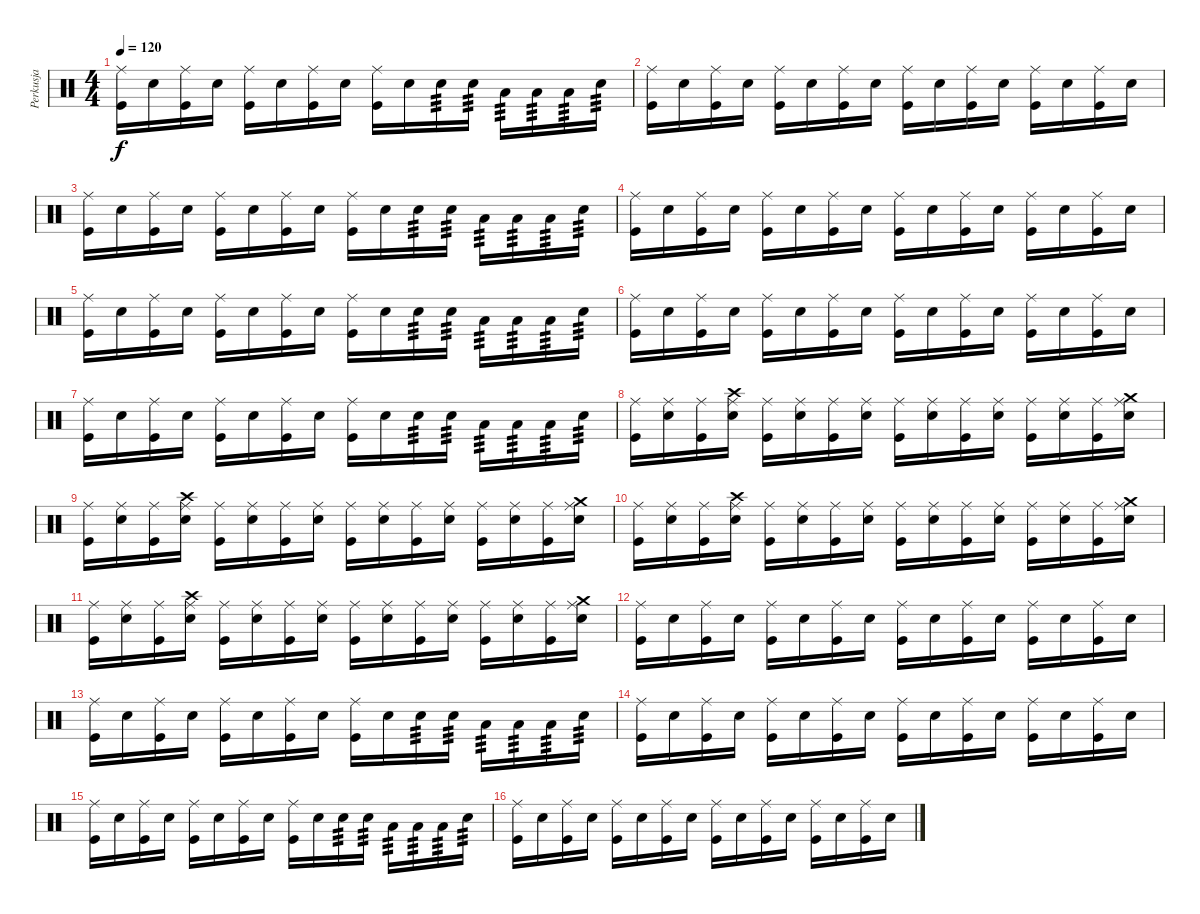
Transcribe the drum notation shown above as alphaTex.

\track ("Perkusja" "Perkusja") {instrument percussion}
\staff {score}
\articulation defaults
\ts (4 4)
\tempo 120
\clef neutral
\ks c
("Ride (middle)" "Kick (hit)").16{dy f} "Snare (hit) 2".16 ("Ride (middle)" "Kick (hit)").16 "Snare (hit) 2".16 ("Ride (middle)" "Kick (hit)").16 "Snare (hit) 2".16 ("Ride (middle)" "Kick (hit)").16 "Snare (hit) 2".16 ("Ride (middle)" "Kick (hit)").16 "Snare (hit) 2".16 "Electric Snare (hit)".16{tp 3} "Electric Snare (hit)".16{tp 3} "Low Floor Tom (hit)".16{tp 3} "Low Floor Tom (hit)".16{tp 3} "Low Tom (hit)".16{tp 3} "Snare (hit) 2".16{tp 3} |
("Ride (middle)" "Kick (hit)").16 "Snare (hit) 2".16 ("Ride (middle)" "Kick (hit)").16 "Snare (hit) 2".16 ("Ride (middle)" "Kick (hit)").16 "Snare (hit) 2".16 ("Ride (middle)" "Kick (hit)").16 "Snare (hit) 2".16 ("Ride (middle)" "Kick (hit)").16 "Snare (hit) 2".16 ("Ride (middle)" "Kick (hit)").16 "Snare (hit) 2".16 ("Ride (middle)" "Kick (hit)").16 "Snare (hit) 2".16 ("Ride (middle)" "Kick (hit)").16 "Snare (hit) 2".16 |
("Ride (middle)" "Kick (hit)").16 "Snare (hit) 2".16 ("Ride (middle)" "Kick (hit)").16 "Snare (hit) 2".16 ("Ride (middle)" "Kick (hit)").16 "Snare (hit) 2".16 ("Ride (middle)" "Kick (hit)").16 "Snare (hit) 2".16 ("Ride (middle)" "Kick (hit)").16 "Snare (hit) 2".16 "Electric Snare (hit)".16{tp 3} "Electric Snare (hit)".16{tp 3} "Low Floor Tom (hit)".16{tp 3} "Low Floor Tom (hit)".16{tp 3} "Low Tom (hit)".16{tp 3} "Snare (hit) 2".16{tp 3} |
("Ride (middle)" "Kick (hit)").16 "Snare (hit) 2".16 ("Ride (middle)" "Kick (hit)").16 "Snare (hit) 2".16 ("Ride (middle)" "Kick (hit)").16 "Snare (hit) 2".16 ("Ride (middle)" "Kick (hit)").16 "Snare (hit) 2".16 ("Ride (middle)" "Kick (hit)").16 "Snare (hit) 2".16 ("Ride (middle)" "Kick (hit)").16 "Snare (hit) 2".16 ("Ride (middle)" "Kick (hit)").16 "Snare (hit) 2".16 ("Ride (middle)" "Kick (hit)").16 "Snare (hit) 2".16 |
("Ride (middle)" "Kick (hit)").16 "Snare (hit) 2".16 ("Ride (middle)" "Kick (hit)").16 "Snare (hit) 2".16 ("Ride (middle)" "Kick (hit)").16 "Snare (hit) 2".16 ("Ride (middle)" "Kick (hit)").16 "Snare (hit) 2".16 ("Ride (middle)" "Kick (hit)").16 "Snare (hit) 2".16 "Electric Snare (hit)".16{tp 3} "Electric Snare (hit)".16{tp 3} "Low Floor Tom (hit)".16{tp 3} "Low Floor Tom (hit)".16{tp 3} "Low Tom (hit)".16{tp 3} "Snare (hit) 2".16{tp 3} |
("Ride (middle)" "Kick (hit)").16 "Snare (hit) 2".16 ("Ride (middle)" "Kick (hit)").16 "Snare (hit) 2".16 ("Ride (middle)" "Kick (hit)").16 "Snare (hit) 2".16 ("Ride (middle)" "Kick (hit)").16 "Snare (hit) 2".16 ("Ride (middle)" "Kick (hit)").16 "Snare (hit) 2".16 ("Ride (middle)" "Kick (hit)").16 "Snare (hit) 2".16 ("Ride (middle)" "Kick (hit)").16 "Snare (hit) 2".16 ("Ride (middle)" "Kick (hit)").16 "Snare (hit) 2".16 |
("Ride (middle)" "Kick (hit)").16 "Snare (hit) 2".16 ("Ride (middle)" "Kick (hit)").16 "Snare (hit) 2".16 ("Ride (middle)" "Kick (hit)").16 "Snare (hit) 2".16 ("Ride (middle)" "Kick (hit)").16 "Snare (hit) 2".16 ("Ride (middle)" "Kick (hit)").16 "Snare (hit) 2".16 "Electric Snare (hit)".16{tp 3} "Electric Snare (hit)".16{tp 3} "Low Floor Tom (hit)".16{tp 3} "Low Floor Tom (hit)".16{tp 3} "Low Tom (hit)".16{tp 3} "Snare (hit) 2".16{tp 3} |
("Ride (middle)" "Kick (hit)").16 ("Ride (middle)" "Electric Snare (hit)").16 ("Ride (middle)" "Kick (hit)").16 ("Crash high (hit)" "Ride (middle)" "Electric Snare (hit)").16 ("Ride (middle)" "Kick (hit)").16 ("Ride (middle)" "Electric Snare (hit)").16 ("Ride (middle)" "Kick (hit)").16 ("Ride (middle)" "Electric Snare (hit)").16 ("Ride (middle)" "Kick (hit)").16 ("Ride (middle)" "Electric Snare (hit)").16 ("Ride (middle)" "Kick (hit)").16 ("Ride (middle)" "Electric Snare (hit)").16 ("Ride (middle)" "Kick (hit)").16 ("Ride (middle)" "Electric Snare (hit)").16 ("Ride (middle)" "Kick (hit)").16 ("Crash medium (hit)" "Ride (middle)" "Electric Snare (hit)").16 |
("Ride (middle)" "Kick (hit)").16 ("Ride (middle)" "Electric Snare (hit)").16 ("Ride (middle)" "Kick (hit)").16 ("Crash high (hit)" "Ride (middle)" "Electric Snare (hit)").16 ("Ride (middle)" "Kick (hit)").16 ("Ride (middle)" "Electric Snare (hit)").16 ("Ride (middle)" "Kick (hit)").16 ("Ride (middle)" "Electric Snare (hit)").16 ("Ride (middle)" "Kick (hit)").16 ("Ride (middle)" "Electric Snare (hit)").16 ("Ride (middle)" "Kick (hit)").16 ("Ride (middle)" "Electric Snare (hit)").16 ("Ride (middle)" "Kick (hit)").16 ("Ride (middle)" "Electric Snare (hit)").16 ("Ride (middle)" "Kick (hit)").16 ("Crash medium (hit)" "Ride (middle)" "Electric Snare (hit)").16 |
("Ride (middle)" "Kick (hit)").16 ("Ride (middle)" "Electric Snare (hit)").16 ("Ride (middle)" "Kick (hit)").16 ("Crash high (hit)" "Ride (middle)" "Electric Snare (hit)").16 ("Ride (middle)" "Kick (hit)").16 ("Ride (middle)" "Electric Snare (hit)").16 ("Ride (middle)" "Kick (hit)").16 ("Ride (middle)" "Electric Snare (hit)").16 ("Ride (middle)" "Kick (hit)").16 ("Ride (middle)" "Electric Snare (hit)").16 ("Ride (middle)" "Kick (hit)").16 ("Ride (middle)" "Electric Snare (hit)").16 ("Ride (middle)" "Kick (hit)").16 ("Ride (middle)" "Electric Snare (hit)").16 ("Ride (middle)" "Kick (hit)").16 ("Crash medium (hit)" "Ride (middle)" "Electric Snare (hit)").16 |
("Ride (middle)" "Kick (hit)").16 ("Ride (middle)" "Electric Snare (hit)").16 ("Ride (middle)" "Kick (hit)").16 ("Crash high (hit)" "Ride (middle)" "Electric Snare (hit)").16 ("Ride (middle)" "Kick (hit)").16 ("Ride (middle)" "Electric Snare (hit)").16 ("Ride (middle)" "Kick (hit)").16 ("Ride (middle)" "Electric Snare (hit)").16 ("Ride (middle)" "Kick (hit)").16 ("Ride (middle)" "Electric Snare (hit)").16 ("Ride (middle)" "Kick (hit)").16 ("Ride (middle)" "Electric Snare (hit)").16 ("Ride (middle)" "Kick (hit)").16 ("Ride (middle)" "Electric Snare (hit)").16 ("Ride (middle)" "Kick (hit)").16 ("Crash medium (hit)" "Ride (middle)" "Electric Snare (hit)").16 |
("Ride (middle)" "Kick (hit)").16 "Snare (hit) 2".16 ("Ride (middle)" "Kick (hit)").16 "Snare (hit) 2".16 ("Ride (middle)" "Kick (hit)").16 "Snare (hit) 2".16 ("Ride (middle)" "Kick (hit)").16 "Snare (hit) 2".16 ("Ride (middle)" "Kick (hit)").16 "Snare (hit) 2".16 ("Ride (middle)" "Kick (hit)").16 "Snare (hit) 2".16 ("Ride (middle)" "Kick (hit)").16 "Snare (hit) 2".16 ("Ride (middle)" "Kick (hit)").16 "Snare (hit) 2".16 |
("Ride (middle)" "Kick (hit)").16 "Snare (hit) 2".16 ("Ride (middle)" "Kick (hit)").16 "Snare (hit) 2".16 ("Ride (middle)" "Kick (hit)").16 "Snare (hit) 2".16 ("Ride (middle)" "Kick (hit)").16 "Snare (hit) 2".16 ("Ride (middle)" "Kick (hit)").16 "Snare (hit) 2".16 "Electric Snare (hit)".16{tp 3} "Electric Snare (hit)".16{tp 3} "Low Floor Tom (hit)".16{tp 3} "Low Floor Tom (hit)".16{tp 3} "Low Tom (hit)".16{tp 3} "Snare (hit) 2".16{tp 3} |
("Ride (middle)" "Kick (hit)").16 "Snare (hit) 2".16 ("Ride (middle)" "Kick (hit)").16 "Snare (hit) 2".16 ("Ride (middle)" "Kick (hit)").16 "Snare (hit) 2".16 ("Ride (middle)" "Kick (hit)").16 "Snare (hit) 2".16 ("Ride (middle)" "Kick (hit)").16 "Snare (hit) 2".16 ("Ride (middle)" "Kick (hit)").16 "Snare (hit) 2".16 ("Ride (middle)" "Kick (hit)").16 "Snare (hit) 2".16 ("Ride (middle)" "Kick (hit)").16 "Snare (hit) 2".16 |
("Ride (middle)" "Kick (hit)").16 "Snare (hit) 2".16 ("Ride (middle)" "Kick (hit)").16 "Snare (hit) 2".16 ("Ride (middle)" "Kick (hit)").16 "Snare (hit) 2".16 ("Ride (middle)" "Kick (hit)").16 "Snare (hit) 2".16 ("Ride (middle)" "Kick (hit)").16 "Snare (hit) 2".16 "Electric Snare (hit)".16{tp 3} "Electric Snare (hit)".16{tp 3} "Low Floor Tom (hit)".16{tp 3} "Low Floor Tom (hit)".16{tp 3} "Low Tom (hit)".16{tp 3} "Snare (hit) 2".16{tp 3} |
("Ride (middle)" "Kick (hit)").16 "Snare (hit) 2".16 ("Ride (middle)" "Kick (hit)").16 "Snare (hit) 2".16 ("Ride (middle)" "Kick (hit)").16 "Snare (hit) 2".16 ("Ride (middle)" "Kick (hit)").16 "Snare (hit) 2".16 ("Ride (middle)" "Kick (hit)").16 "Snare (hit) 2".16 ("Ride (middle)" "Kick (hit)").16 "Snare (hit) 2".16 ("Ride (middle)" "Kick (hit)").16 "Snare (hit) 2".16 ("Ride (middle)" "Kick (hit)").16 "Snare (hit) 2".16
